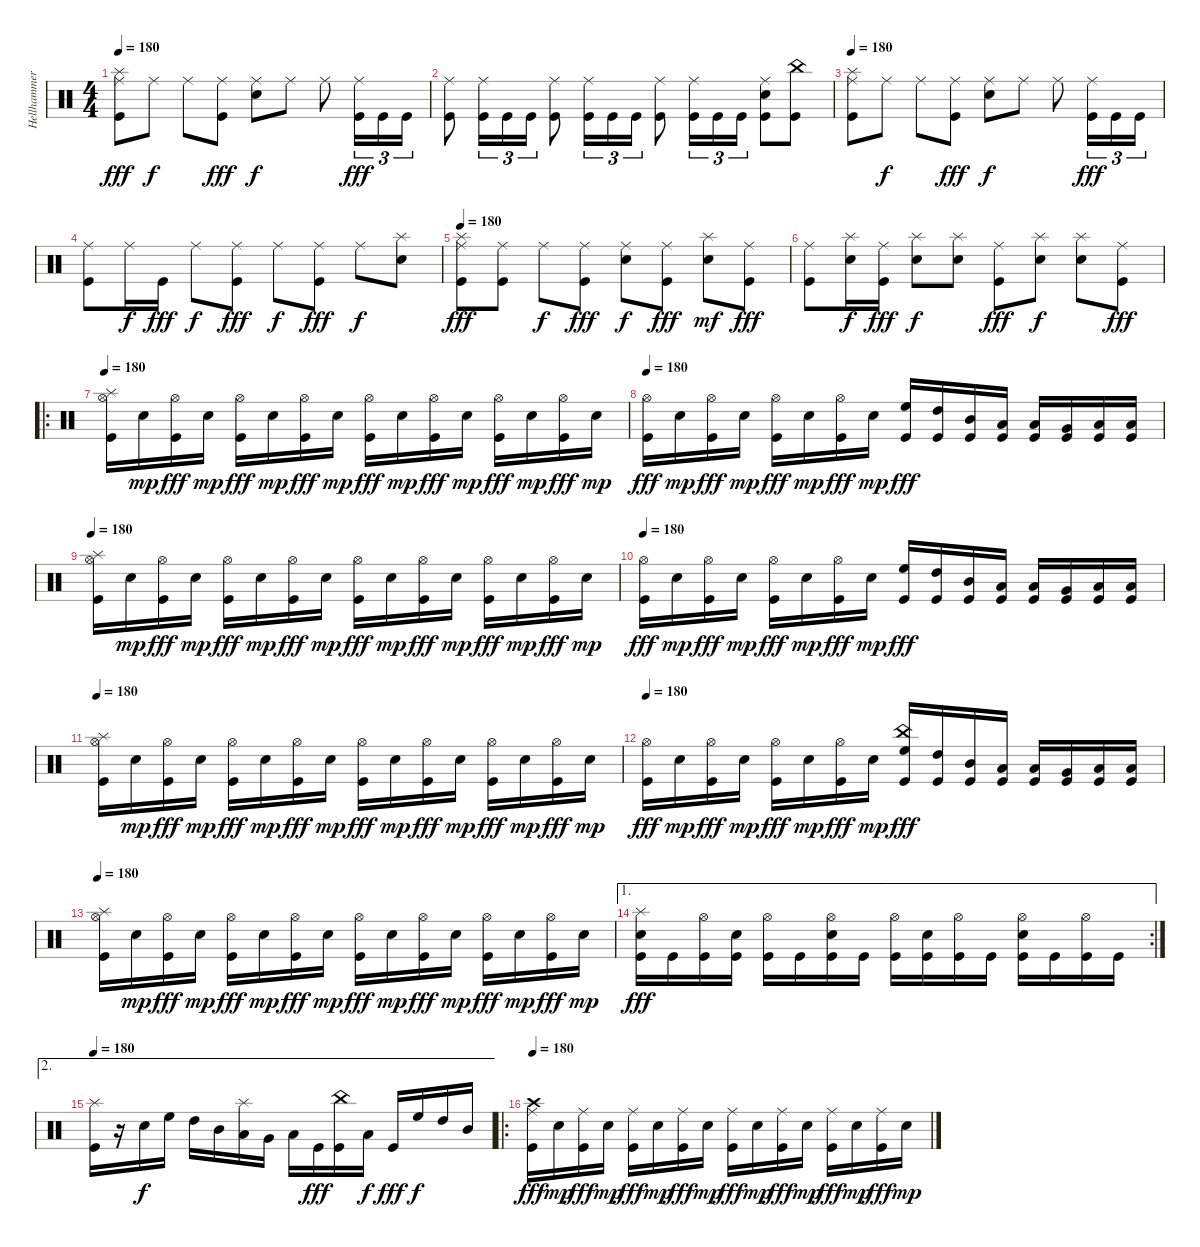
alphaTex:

\track ("Hellhammer" "Hellhammer") {instrument percussion}
\staff {score}
\articulation defaults
\ts (4 4)
\tempo 180
\clef neutral
\ks c
("Ride (middle)" "Splash (hit)" "Kick (hit)").8{dy fff} "Ride (middle)".8{dy f} "Ride (middle)".8 ("Ride (middle)" "Kick (hit)").8{dy fff} ("Ride (middle)" "Electric Snare (hit)").8{dy f} "Ride (middle)".8 "Ride (middle)".8 ("Ride (middle)" "Kick (hit)").16{tu (3 2) dy fff} "Kick (hit)".16{tu (3 2)} "Kick (hit)".16{tu (3 2)} |
("Ride (middle)" "Kick (hit)").8 ("Ride (middle)" "Kick (hit)").16{tu (3 2)} "Kick (hit)".16{tu (3 2)} "Kick (hit)".16{tu (3 2)} ("Ride (middle)" "Kick (hit)").8 ("Ride (middle)" "Kick (hit)").16{tu (3 2)} "Kick (hit)".16{tu (3 2)} "Kick (hit)".16{tu (3 2)} ("Ride (middle)" "Kick (hit)").8 ("Ride (middle)" "Kick (hit)").16{tu (3 2)} "Kick (hit)".16{tu (3 2)} "Kick (hit)".16{tu (3 2)} ("Ride (middle)" "Electric Snare (hit)" "Kick (hit)").8 ("China (hit)" "Kick (hit)").8 |
\tempo 180
("Ride (middle)" "Splash (hit)" "Kick (hit)").8 "Ride (middle)".8{dy f} "Ride (middle)".8 ("Ride (middle)" "Kick (hit)").8{dy fff} ("Ride (middle)" "Electric Snare (hit)").8{dy f} "Ride (middle)".8 "Ride (middle)".8 ("Ride (middle)" "Kick (hit)").16{tu (3 2) dy fff} "Kick (hit)".16{tu (3 2)} "Kick (hit)".16{tu (3 2)} |
("Ride (middle)" "Kick (hit)").8 "Ride (middle)".16{dy f} "Kick (hit)".16{dy fff} "Ride (middle)".8{dy f} ("Ride (middle)" "Kick (hit)").8{dy fff} "Ride (middle)".8{dy f} ("Ride (middle)" "Kick (hit)").8{dy fff} "Ride (middle)".8{dy f} ("Splash (hit)" "Electric Snare (hit)").8 |
\tempo 180
("Ride (middle)" "Splash (hit)" "Kick (hit)").8{dy fff} ("Ride (middle)" "Kick (hit)").8 "Ride (middle)".8{dy f} ("Ride (middle)" "Kick (hit)").8{dy fff} ("Ride (middle)" "Electric Snare (hit)").8{dy f} ("Ride (middle)" "Kick (hit)").8{dy fff} ("Splash (hit)" "Electric Snare (hit)").8{dy mf} ("Ride (middle)" "Kick (hit)").8{dy fff} |
("Ride (middle)" "Kick (hit)").8 ("Splash (hit)" "Electric Snare (hit)").16{dy f} ("Ride (middle)" "Kick (hit)").16{dy fff} ("Electric Snare (hit)" "Splash (hit)").8{dy f} ("Electric Snare (hit)" "Splash (hit)").8 ("Ride (middle)" "Kick (hit)").8{dy fff} ("Electric Snare (hit)" "Splash (hit)").8{dy f} ("Electric Snare (hit)" "Splash (hit)").8 ("Ride (middle)" "Kick (hit)").8{dy fff} |
\ro
\tempo 180
("Splash (hit)" "Hi-Hat (open)" "Kick (hit)").16 "Electric Snare (hit)".16{dy mp} ("Hi-Hat (open)" "Kick (hit)").16{dy fff} "Electric Snare (hit)".16{dy mp} ("Hi-Hat (open)" "Kick (hit)").16{dy fff} "Electric Snare (hit)".16{dy mp} ("Hi-Hat (open)" "Kick (hit)").16{dy fff} "Electric Snare (hit)".16{dy mp} ("Hi-Hat (open)" "Kick (hit)").16{dy fff} "Electric Snare (hit)".16{dy mp} ("Hi-Hat (open)" "Kick (hit)").16{dy fff} "Electric Snare (hit)".16{dy mp} ("Hi-Hat (open)" "Kick (hit)").16{dy fff} "Electric Snare (hit)".16{dy mp} ("Hi-Hat (open)" "Kick (hit)").16{dy fff} "Electric Snare (hit)".16{dy mp} |
\tempo 180
("Hi-Hat (open)" "Kick (hit)").16{dy fff} "Electric Snare (hit)".16{dy mp} ("Hi-Hat (open)" "Kick (hit)").16{dy fff} "Electric Snare (hit)".16{dy mp} ("Hi-Hat (open)" "Kick (hit)").16{dy fff} "Electric Snare (hit)".16{dy mp} ("Hi-Hat (open)" "Kick (hit)").16{dy fff} "Electric Snare (hit)".16{dy mp} ("High Floor Tom (hit)" "Kick (hit)").16{dy fff} ("High Tom (hit)" "Kick (hit)").16 ("Mid Tom (hit)" "Kick (hit)").16 ("Low Tom (hit)" "Kick (hit)").16 ("Low Tom (hit)" "Kick (hit)").16 ("Very Low Tom (hit)" "Kick (hit)").16 ("Low Floor Tom (hit)" "Kick (hit)").16 ("Low Floor Tom (hit)" "Kick (hit)").16 |
\tempo 180
("Splash (hit)" "Hi-Hat (open)" "Kick (hit)").16 "Electric Snare (hit)".16{dy mp} ("Hi-Hat (open)" "Kick (hit)").16{dy fff} "Electric Snare (hit)".16{dy mp} ("Hi-Hat (open)" "Kick (hit)").16{dy fff} "Electric Snare (hit)".16{dy mp} ("Hi-Hat (open)" "Kick (hit)").16{dy fff} "Electric Snare (hit)".16{dy mp} ("Hi-Hat (open)" "Kick (hit)").16{dy fff} "Electric Snare (hit)".16{dy mp} ("Hi-Hat (open)" "Kick (hit)").16{dy fff} "Electric Snare (hit)".16{dy mp} ("Hi-Hat (open)" "Kick (hit)").16{dy fff} "Electric Snare (hit)".16{dy mp} ("Hi-Hat (open)" "Kick (hit)").16{dy fff} "Electric Snare (hit)".16{dy mp} |
\tempo 180
("Hi-Hat (open)" "Kick (hit)").16{dy fff} "Electric Snare (hit)".16{dy mp} ("Hi-Hat (open)" "Kick (hit)").16{dy fff} "Electric Snare (hit)".16{dy mp} ("Hi-Hat (open)" "Kick (hit)").16{dy fff} "Electric Snare (hit)".16{dy mp} ("Hi-Hat (open)" "Kick (hit)").16{dy fff} "Electric Snare (hit)".16{dy mp} ("High Floor Tom (hit)" "Kick (hit)").16{dy fff} ("High Tom (hit)" "Kick (hit)").16 ("Mid Tom (hit)" "Kick (hit)").16 ("Low Tom (hit)" "Kick (hit)").16 ("Low Tom (hit)" "Kick (hit)").16 ("Very Low Tom (hit)" "Kick (hit)").16 ("Low Floor Tom (hit)" "Kick (hit)").16 ("Low Floor Tom (hit)" "Kick (hit)").16 |
\tempo 180
("Splash (hit)" "Hi-Hat (open)" "Kick (hit)").16 "Electric Snare (hit)".16{dy mp} ("Hi-Hat (open)" "Kick (hit)").16{dy fff} "Electric Snare (hit)".16{dy mp} ("Hi-Hat (open)" "Kick (hit)").16{dy fff} "Electric Snare (hit)".16{dy mp} ("Hi-Hat (open)" "Kick (hit)").16{dy fff} "Electric Snare (hit)".16{dy mp} ("Hi-Hat (open)" "Kick (hit)").16{dy fff} "Electric Snare (hit)".16{dy mp} ("Hi-Hat (open)" "Kick (hit)").16{dy fff} "Electric Snare (hit)".16{dy mp} ("Hi-Hat (open)" "Kick (hit)").16{dy fff} "Electric Snare (hit)".16{dy mp} ("Hi-Hat (open)" "Kick (hit)").16{dy fff} "Electric Snare (hit)".16{dy mp} |
\tempo 180
("Hi-Hat (open)" "Kick (hit)").16{dy fff} "Electric Snare (hit)".16{dy mp} ("Hi-Hat (open)" "Kick (hit)").16{dy fff} "Electric Snare (hit)".16{dy mp} ("Hi-Hat (open)" "Kick (hit)").16{dy fff} "Electric Snare (hit)".16{dy mp} ("Hi-Hat (open)" "Kick (hit)").16{dy fff} "Electric Snare (hit)".16{dy mp} ("China (hit)" "High Floor Tom (hit)" "Kick (hit)").16{dy fff} ("High Tom (hit)" "Kick (hit)").16 ("Mid Tom (hit)" "Kick (hit)").16 ("Low Tom (hit)" "Kick (hit)").16 ("Low Tom (hit)" "Kick (hit)").16 ("Very Low Tom (hit)" "Kick (hit)").16 ("Low Floor Tom (hit)" "Kick (hit)").16 ("Low Floor Tom (hit)" "Kick (hit)").16 |
\tempo 180
("Splash (hit)" "Hi-Hat (open)" "Kick (hit)").16 "Electric Snare (hit)".16{dy mp} ("Hi-Hat (open)" "Kick (hit)").16{dy fff} "Electric Snare (hit)".16{dy mp} ("Hi-Hat (open)" "Kick (hit)").16{dy fff} "Electric Snare (hit)".16{dy mp} ("Hi-Hat (open)" "Kick (hit)").16{dy fff} "Electric Snare (hit)".16{dy mp} ("Hi-Hat (open)" "Kick (hit)").16{dy fff} "Electric Snare (hit)".16{dy mp} ("Hi-Hat (open)" "Kick (hit)").16{dy fff} "Electric Snare (hit)".16{dy mp} ("Hi-Hat (open)" "Kick (hit)").16{dy fff} "Electric Snare (hit)".16{dy mp} ("Hi-Hat (open)" "Kick (hit)").16{dy fff} "Electric Snare (hit)".16{dy mp} |
\ae 1
\rc 2
("Splash (hit)" "Electric Snare (hit)" "Kick (hit)").16{dy fff} "Kick (hit)".16 ("Hi-Hat (open)" "Kick (hit)").16 ("Electric Snare (hit)" "Kick (hit)").16 ("Hi-Hat (open)" "Kick (hit)").16 "Kick (hit)".16 ("Hi-Hat (open)" "Electric Snare (hit)" "Kick (hit)").16 "Kick (hit)".16 ("Hi-Hat (open)" "Kick (hit)").16 ("Electric Snare (hit)" "Kick (hit)").16 ("Hi-Hat (open)" "Kick (hit)").16 "Kick (hit)".16 ("Hi-Hat (open)" "Electric Snare (hit)" "Kick (hit)").16 "Kick (hit)".16 ("Hi-Hat (open)" "Kick (hit)").16 "Kick (hit)".16 |
\ae 2
\tempo 180
("Splash (hit)" "Kick (hit)").16 r.16 "Electric Snare (hit)".16{dy f} "High Floor Tom (hit)".16 "High Tom (hit)".16 "Mid Tom (hit)".16 ("Splash (hit)" "Low Tom (hit)").16 "Very Low Tom (hit)".16 "Low Floor Tom (hit)".16 "Kick (hit)".16{dy fff} ("China (hit)" "Kick (hit)").16 "Low Floor Tom (hit)".16{dy f} "Kick (hit)".16{dy fff} "High Floor Tom (hit)".16{dy f} "High Tom (hit)".16 "Mid Tom (hit)".16 |
\ro
\tempo 180
("Crash high (hit)" "Ride (middle)" "Kick (hit)").16{dy fff} "Electric Snare (hit)".16{dy mp} ("Ride (middle)" "Kick (hit)").16{dy fff} "Electric Snare (hit)".16{dy mp} ("Ride (middle)" "Kick (hit)").16{dy fff} "Electric Snare (hit)".16{dy mp} ("Ride (middle)" "Kick (hit)").16{dy fff} "Electric Snare (hit)".16{dy mp} ("Ride (middle)" "Kick (hit)").16{dy fff} "Electric Snare (hit)".16{dy mp} ("Ride (middle)" "Kick (hit)").16{dy fff} "Electric Snare (hit)".16{dy mp} ("Ride (middle)" "Kick (hit)").16{dy fff} "Electric Snare (hit)".16{dy mp} ("Ride (middle)" "Kick (hit)").16{dy fff} "Electric Snare (hit)".16{dy mp}
